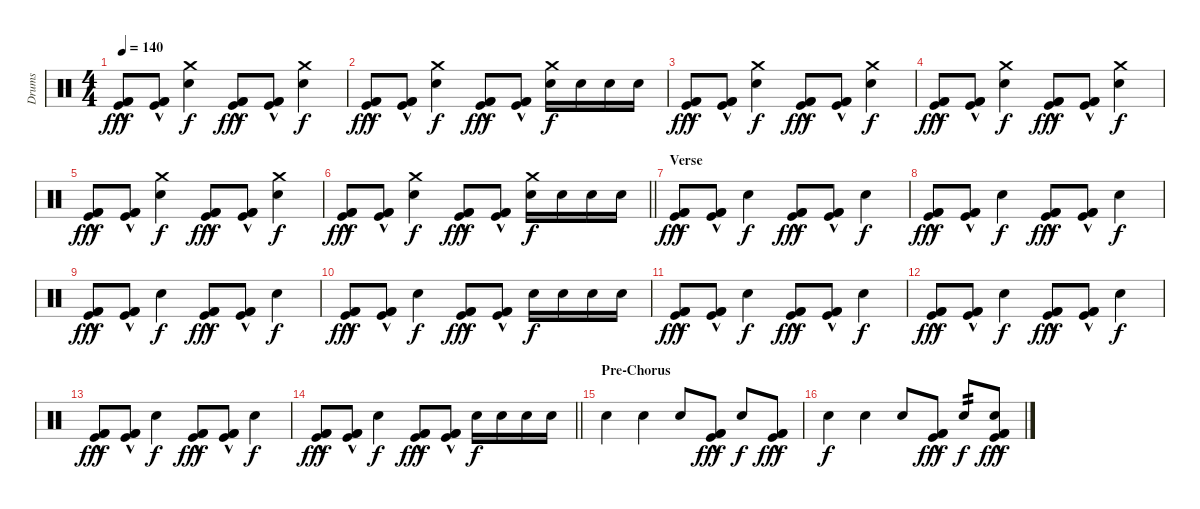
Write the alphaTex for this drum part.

\track ("Drums" "Drums") {instrument percussion}
\staff {score}
\articulation defaults
\ts (4 4)
\tempo 140
\clef neutral
\ks c
("Kick (hit) 2"{hac} "Kick (hit)"{hac} "Kick (hit) 2"{hac}).8{dy fff} ("Kick (hit) 2"{hac} "Kick (hit)"{hac} "Kick (hit) 2"{hac}).8 ("Snare (hit) 2" "Crash medium (hit)").4{dy f} ("Kick (hit) 2"{hac} "Kick (hit)"{hac} "Kick (hit) 2"{hac}).8{dy fff} ("Kick (hit) 2"{hac} "Kick (hit)"{hac} "Kick (hit) 2"{hac}).8 ("Snare (hit) 2" "Crash medium (hit)").4{dy f} |
("Kick (hit) 2"{hac} "Kick (hit)"{hac} "Kick (hit) 2"{hac}).8{dy fff} ("Kick (hit) 2"{hac} "Kick (hit)"{hac} "Kick (hit) 2"{hac}).8 ("Snare (hit) 2" "Crash medium (hit)").4{dy f} ("Kick (hit) 2"{hac} "Kick (hit)"{hac} "Kick (hit) 2"{hac}).8{dy fff} ("Kick (hit) 2"{hac} "Kick (hit)"{hac} "Kick (hit) 2"{hac}).8 ("Snare (hit) 2" "Crash medium (hit)").16{dy f} "Snare (hit) 2".16 "Snare (hit) 2".16 "Snare (hit) 2".16 |
("Kick (hit) 2"{hac} "Kick (hit)"{hac} "Kick (hit) 2"{hac}).8{dy fff} ("Kick (hit) 2"{hac} "Kick (hit)"{hac} "Kick (hit) 2"{hac}).8 ("Snare (hit) 2" "Crash medium (hit)").4{dy f} ("Kick (hit) 2"{hac} "Kick (hit)"{hac} "Kick (hit) 2"{hac}).8{dy fff} ("Kick (hit) 2"{hac} "Kick (hit)"{hac} "Kick (hit) 2"{hac}).8 ("Snare (hit) 2" "Crash medium (hit)").4{dy f} |
("Kick (hit) 2"{hac} "Kick (hit)"{hac} "Kick (hit) 2"{hac}).8{dy fff} ("Kick (hit) 2"{hac} "Kick (hit)"{hac} "Kick (hit) 2"{hac}).8 ("Snare (hit) 2" "Crash medium (hit)").4{dy f} ("Kick (hit) 2"{hac} "Kick (hit)"{hac} "Kick (hit) 2"{hac}).8{dy fff} ("Kick (hit) 2"{hac} "Kick (hit)"{hac} "Kick (hit) 2"{hac}).8 ("Snare (hit) 2" "Crash medium (hit)").4{dy f} |
("Kick (hit) 2"{hac} "Kick (hit)"{hac} "Kick (hit) 2"{hac}).8{dy fff} ("Kick (hit) 2"{hac} "Kick (hit)"{hac} "Kick (hit) 2"{hac}).8 ("Snare (hit) 2" "Crash medium (hit)").4{dy f} ("Kick (hit) 2"{hac} "Kick (hit)"{hac} "Kick (hit) 2"{hac}).8{dy fff} ("Kick (hit) 2"{hac} "Kick (hit)"{hac} "Kick (hit) 2"{hac}).8 ("Snare (hit) 2" "Crash medium (hit)").4{dy f} |
\barLineRight lightlight
("Kick (hit) 2"{hac} "Kick (hit)"{hac} "Kick (hit) 2"{hac}).8{dy fff} ("Kick (hit) 2"{hac} "Kick (hit)"{hac} "Kick (hit) 2"{hac}).8 ("Snare (hit) 2" "Crash medium (hit)").4{dy f} ("Kick (hit) 2"{hac} "Kick (hit)"{hac} "Kick (hit) 2"{hac}).8{dy fff} ("Kick (hit) 2"{hac} "Kick (hit)"{hac} "Kick (hit) 2"{hac}).8 ("Snare (hit) 2" "Crash medium (hit)").16{dy f} "Snare (hit) 2".16 "Snare (hit) 2".16 "Snare (hit) 2".16 |
\section ("" "Verse")
("Kick (hit) 2"{hac} "Kick (hit)"{hac} "Kick (hit) 2"{hac}).8{dy fff} ("Kick (hit) 2"{hac} "Kick (hit)"{hac} "Kick (hit) 2"{hac}).8 "Snare (hit) 2".4{dy f} ("Kick (hit) 2"{hac} "Kick (hit)"{hac} "Kick (hit) 2"{hac}).8{dy fff} ("Kick (hit) 2"{hac} "Kick (hit)"{hac} "Kick (hit) 2"{hac}).8 "Snare (hit) 2".4{dy f} |
("Kick (hit) 2"{hac} "Kick (hit)"{hac} "Kick (hit) 2"{hac}).8{dy fff} ("Kick (hit) 2"{hac} "Kick (hit)"{hac} "Kick (hit) 2"{hac}).8 "Snare (hit) 2".4{dy f} ("Kick (hit) 2"{hac} "Kick (hit)"{hac} "Kick (hit) 2"{hac}).8{dy fff} ("Kick (hit) 2"{hac} "Kick (hit)"{hac} "Kick (hit) 2"{hac}).8 "Snare (hit) 2".4{dy f} |
("Kick (hit) 2"{hac} "Kick (hit)"{hac} "Kick (hit) 2"{hac}).8{dy fff} ("Kick (hit) 2"{hac} "Kick (hit)"{hac} "Kick (hit) 2"{hac}).8 "Snare (hit) 2".4{dy f} ("Kick (hit) 2"{hac} "Kick (hit)"{hac} "Kick (hit) 2"{hac}).8{dy fff} ("Kick (hit) 2"{hac} "Kick (hit)"{hac} "Kick (hit) 2"{hac}).8 "Snare (hit) 2".4{dy f} |
("Kick (hit) 2"{hac} "Kick (hit)"{hac} "Kick (hit) 2"{hac}).8{dy fff} ("Kick (hit) 2"{hac} "Kick (hit)"{hac} "Kick (hit) 2"{hac}).8 "Snare (hit) 2".4{dy f} ("Kick (hit) 2"{hac} "Kick (hit)"{hac} "Kick (hit) 2"{hac}).8{dy fff} ("Kick (hit) 2"{hac} "Kick (hit)"{hac} "Kick (hit) 2"{hac}).8 "Snare (hit) 2".16{dy f} "Snare (hit) 2".16 "Snare (hit) 2".16 "Snare (hit) 2".16 |
("Kick (hit) 2"{hac} "Kick (hit)"{hac} "Kick (hit) 2"{hac}).8{dy fff} ("Kick (hit) 2"{hac} "Kick (hit)"{hac} "Kick (hit) 2"{hac}).8 "Snare (hit) 2".4{dy f} ("Kick (hit) 2"{hac} "Kick (hit)"{hac} "Kick (hit) 2"{hac}).8{dy fff} ("Kick (hit) 2"{hac} "Kick (hit)"{hac} "Kick (hit) 2"{hac}).8 "Snare (hit) 2".4{dy f} |
("Kick (hit) 2"{hac} "Kick (hit)"{hac} "Kick (hit) 2"{hac}).8{dy fff} ("Kick (hit) 2"{hac} "Kick (hit)"{hac} "Kick (hit) 2"{hac}).8 "Snare (hit) 2".4{dy f} ("Kick (hit) 2"{hac} "Kick (hit)"{hac} "Kick (hit) 2"{hac}).8{dy fff} ("Kick (hit) 2"{hac} "Kick (hit)"{hac} "Kick (hit) 2"{hac}).8 "Snare (hit) 2".4{dy f} |
("Kick (hit) 2"{hac} "Kick (hit)"{hac} "Kick (hit) 2"{hac}).8{dy fff} ("Kick (hit) 2"{hac} "Kick (hit)"{hac} "Kick (hit) 2"{hac}).8 "Snare (hit) 2".4{dy f} ("Kick (hit) 2"{hac} "Kick (hit)"{hac} "Kick (hit) 2"{hac}).8{dy fff} ("Kick (hit) 2"{hac} "Kick (hit)"{hac} "Kick (hit) 2"{hac}).8 "Snare (hit) 2".4{dy f} |
\barLineRight lightlight
("Kick (hit) 2"{hac} "Kick (hit)"{hac} "Kick (hit) 2"{hac}).8{dy fff} ("Kick (hit) 2"{hac} "Kick (hit)"{hac} "Kick (hit) 2"{hac}).8 "Snare (hit) 2".4{dy f} ("Kick (hit) 2"{hac} "Kick (hit)"{hac} "Kick (hit) 2"{hac}).8{dy fff} ("Kick (hit) 2"{hac} "Kick (hit)"{hac} "Kick (hit) 2"{hac}).8 "Snare (hit) 2".16{dy f} "Snare (hit) 2".16 "Snare (hit) 2".16 "Snare (hit) 2".16 |
\section ("" "Pre-Chorus")
"Snare (hit) 2".4 "Snare (hit) 2".4 "Snare (hit) 2".8 ("Kick (hit) 2"{hac} "Kick (hit)"{hac} "Kick (hit) 2"{hac}).8{dy fff} "Snare (hit) 2".8{dy f} ("Kick (hit) 2"{hac} "Kick (hit)"{hac} "Kick (hit) 2"{hac}).8{dy fff} |
"Snare (hit) 2".4{dy f} "Snare (hit) 2".4 "Snare (hit) 2".8 ("Kick (hit) 2"{hac} "Kick (hit)"{hac} "Kick (hit) 2"{hac}).8{dy fff} "Snare (hit) 2".8{tp 2 dy f} ("Snare (hit) 2" "Kick (hit) 2"{hac} "Kick (hit)"{hac} "Kick (hit) 2"{hac}).8{dy fff}
